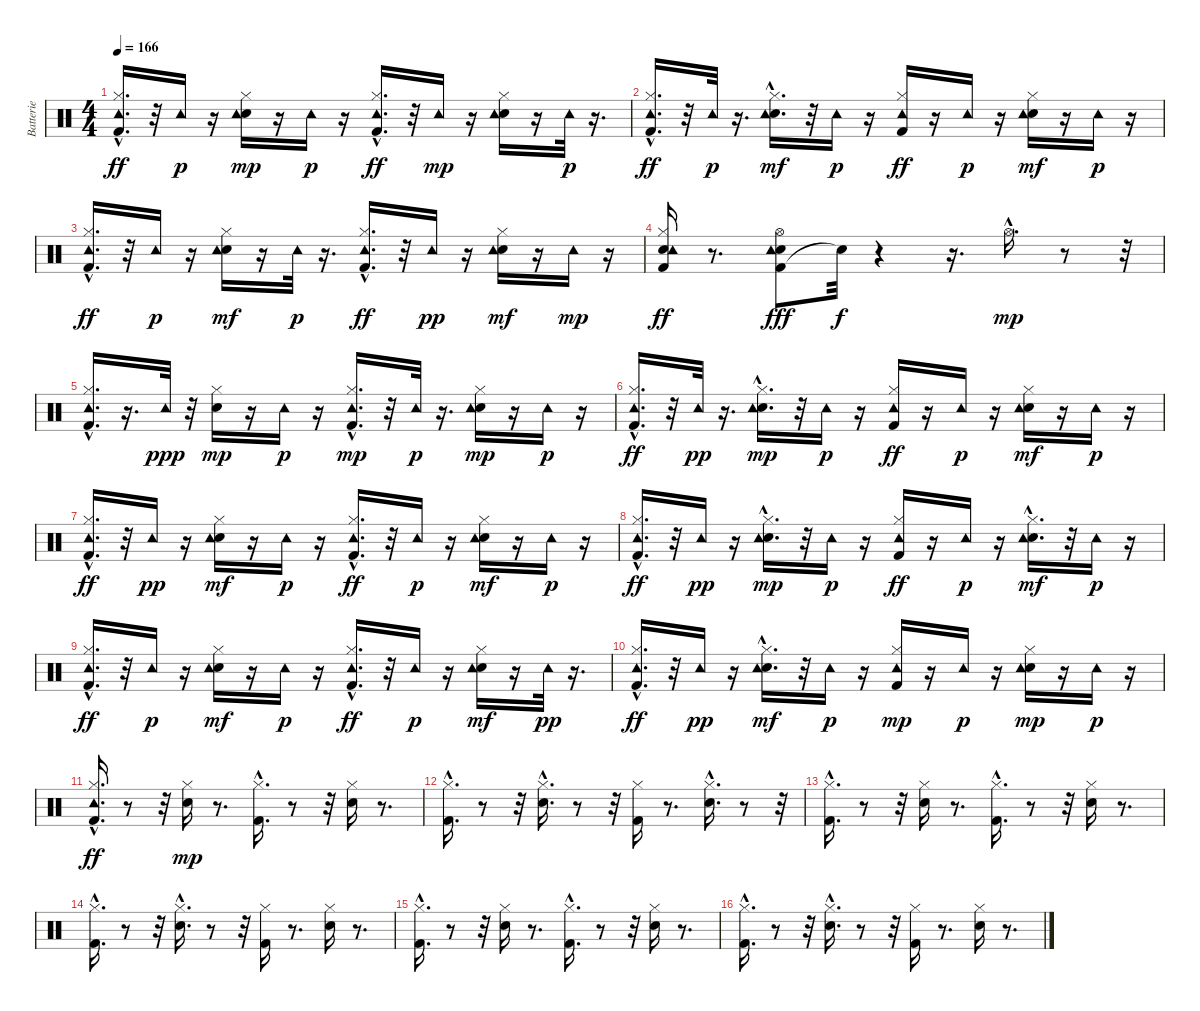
\track ("Batterie" "Batterie") {instrument percussion}
\staff {score}
\articulation defaults
\ts (4 4)
\tempo 166
\clef neutral
\ks c
("Kick (hit) 2"{hac} "Hi-Hat (closed)"{hac} "Tambourine (hit)").16{d dy ff} r.32 "Tambourine (hit)".16{dy p} r.16 ("Electric Snare (hit)" "Hi-Hat (closed)" "Tambourine (hit)").16{dy mp} r.16 "Tambourine (hit)".16{dy p} r.16 ("Kick (hit) 2"{hac} "Hi-Hat (closed)" "Tambourine (hit)").16{d dy ff} r.32 "Tambourine (hit)".16{dy mp} r.16 ("Electric Snare (hit)" "Hi-Hat (closed)" "Tambourine (hit)").16 r.16 "Tambourine (hit)".32{dy p} r.16{d} |
("Kick (hit) 2"{hac} "Hi-Hat (closed)" "Tambourine (hit)").16{d dy ff} r.32 "Tambourine (hit)".32{dy p} r.16{d} ("Electric Snare (hit)" "Hi-Hat (closed)"{hac} "Tambourine (hit)").16{d dy mf} r.32 "Tambourine (hit)".16{dy p} r.16 ("Kick (hit) 2" "Hi-Hat (closed)" "Tambourine (hit)").16{dy ff} r.16 "Tambourine (hit)".16{dy p} r.16 ("Electric Snare (hit)" "Hi-Hat (closed)" "Tambourine (hit)").16{dy mf} r.16 "Tambourine (hit)".16{dy p} r.16 |
("Kick (hit) 2"{hac} "Hi-Hat (closed)"{hac} "Tambourine (hit)").16{d dy ff} r.32 "Tambourine (hit)".16{dy p} r.16 ("Electric Snare (hit)" "Hi-Hat (closed)" "Tambourine (hit)").16{dy mf} r.16 "Tambourine (hit)".32{dy p} r.16{d} ("Kick (hit) 2"{hac} "Hi-Hat (closed)" "Tambourine (hit)").16{d dy ff} r.32 "Tambourine (hit)".16{dy pp} r.16 ("Electric Snare (hit)" "Hi-Hat (closed)" "Tambourine (hit)").16{dy mf} r.16 "Tambourine (hit)".16{dy mp} r.16 |
("Kick (hit) 2" "Electric Snare (hit)" "Hi-Hat (closed)" "Tambourine (hit)").16{dy ff} r.8{d} ("Kick (hit) 2" "Electric Snare (hit)" "Hi-Hat (open)" "Tambourine (hit)").8{dy fff} "Snare (hit)"{t}.32{dy f} r.4 r.16{d} "Hi-Hat (open)"{hac}.16{d dy mp} r.8 r.32 |
("Kick (hit) 2"{hac} "Hi-Hat (closed)"{hac} "Tambourine (hit)").16{d} r.16{d} "Tambourine (hit)".32{dy ppp} r.32 ("Electric Snare (hit)" "Hi-Hat (closed)").16{dy mp} r.16 "Tambourine (hit)".16{dy p} r.16 ("Kick (hit) 2"{hac} "Hi-Hat (closed)" "Tambourine (hit)").16{d dy mp} r.32 "Tambourine (hit)".32{dy p} r.16{d} ("Electric Snare (hit)" "Hi-Hat (closed)" "Tambourine (hit)").16{dy mp} r.16 "Tambourine (hit)".16{dy p} r.16 |
("Kick (hit) 2"{hac} "Hi-Hat (closed)" "Tambourine (hit)").16{d dy ff} r.32 "Tambourine (hit)".32{dy pp} r.16{d} ("Electric Snare (hit)" "Hi-Hat (closed)"{hac} "Tambourine (hit)").16{d dy mp} r.32 "Tambourine (hit)".16{dy p} r.16 ("Kick (hit) 2" "Hi-Hat (closed)" "Tambourine (hit)").16{dy ff} r.16 "Tambourine (hit)".16{dy p} r.16 ("Electric Snare (hit)" "Hi-Hat (closed)" "Tambourine (hit)").16{dy mf} r.16 "Tambourine (hit)".16{dy p} r.16 |
("Kick (hit) 2"{hac} "Hi-Hat (closed)"{hac} "Tambourine (hit)").16{d dy ff} r.32 "Tambourine (hit)".16{dy pp} r.16 ("Electric Snare (hit)" "Hi-Hat (closed)" "Tambourine (hit)").16{dy mf} r.16 "Tambourine (hit)".16{dy p} r.16 ("Kick (hit) 2"{hac} "Hi-Hat (closed)" "Tambourine (hit)").16{d dy ff} r.32 "Tambourine (hit)".16{dy p} r.16 ("Electric Snare (hit)" "Hi-Hat (closed)" "Tambourine (hit)").16{dy mf} r.16 "Tambourine (hit)".16{dy p} r.16 |
("Kick (hit) 2"{hac} "Hi-Hat (closed)" "Tambourine (hit)").16{d dy ff} r.32 "Tambourine (hit)".16{dy pp} r.16 ("Electric Snare (hit)" "Hi-Hat (closed)"{hac} "Tambourine (hit)").16{d dy mp} r.32 "Tambourine (hit)".16{dy p} r.16 ("Kick (hit) 2" "Hi-Hat (closed)" "Tambourine (hit)").16{dy ff} r.16 "Tambourine (hit)".16{dy p} r.16 ("Electric Snare (hit)"{hac} "Hi-Hat (closed)" "Tambourine (hit)").16{d dy mf} r.32 "Tambourine (hit)".16{dy p} r.16 |
("Kick (hit) 2"{hac} "Hi-Hat (closed)"{hac} "Tambourine (hit)").16{d dy ff} r.32 "Tambourine (hit)".16{dy p} r.16 ("Electric Snare (hit)" "Hi-Hat (closed)" "Tambourine (hit)").16{dy mf} r.16 "Tambourine (hit)".16{dy p} r.16 ("Kick (hit) 2"{hac} "Hi-Hat (closed)" "Tambourine (hit)").16{d dy ff} r.32 "Tambourine (hit)".16{dy p} r.16 ("Electric Snare (hit)" "Hi-Hat (closed)" "Tambourine (hit)").16{dy mf} r.16 "Tambourine (hit)".32{dy pp} r.16{d} |
("Kick (hit) 2"{hac} "Hi-Hat (closed)" "Tambourine (hit)").16{d dy ff} r.32 "Tambourine (hit)".16{dy pp} r.16 ("Electric Snare (hit)" "Hi-Hat (closed)"{hac} "Tambourine (hit)").16{d dy mf} r.32 "Tambourine (hit)".16{dy p} r.16 ("Kick (hit) 2" "Hi-Hat (closed)" "Tambourine (hit)").16{dy mp} r.16 "Tambourine (hit)".16{dy p} r.16 ("Electric Snare (hit)" "Hi-Hat (closed)" "Tambourine (hit)").16{dy mp} r.16 "Tambourine (hit)".16{dy p} r.16 |
("Kick (hit) 2"{hac} "Hi-Hat (closed)"{hac} "Tambourine (hit)").16{d dy ff} r.8 r.32 ("Electric Snare (hit)" "Hi-Hat (closed)").16{dy mp} r.8{d} ("Kick (hit) 2"{hac} "Hi-Hat (closed)").16{d} r.8 r.32 ("Electric Snare (hit)" "Hi-Hat (closed)").16 r.8{d} |
("Kick (hit) 2"{hac} "Hi-Hat (closed)").16{d} r.8 r.32 ("Electric Snare (hit)" "Hi-Hat (closed)"{hac}).16{d} r.8 r.32 ("Kick (hit) 2" "Hi-Hat (closed)").16 r.8{d} ("Electric Snare (hit)"{hac} "Hi-Hat (closed)").16{d} r.8 r.32 |
("Kick (hit) 2"{hac} "Hi-Hat (closed)"{hac}).16{d} r.8 r.32 ("Electric Snare (hit)" "Hi-Hat (closed)").16 r.8{d} ("Kick (hit) 2"{hac} "Hi-Hat (closed)").16{d} r.8 r.32 ("Electric Snare (hit)" "Hi-Hat (closed)").16 r.8{d} |
("Kick (hit) 2"{hac} "Hi-Hat (closed)").16{d} r.8 r.32 ("Electric Snare (hit)" "Hi-Hat (closed)"{hac}).16{d} r.8 r.32 ("Kick (hit) 2" "Hi-Hat (closed)").16 r.8{d} ("Electric Snare (hit)" "Hi-Hat (closed)").16 r.8{d} |
("Kick (hit) 2"{hac} "Hi-Hat (closed)"{hac}).16{d} r.8 r.32 ("Electric Snare (hit)" "Hi-Hat (closed)").16 r.8{d} ("Kick (hit) 2"{hac} "Hi-Hat (closed)").16{d} r.8 r.32 ("Electric Snare (hit)" "Hi-Hat (closed)").16 r.8{d} |
("Kick (hit) 2"{hac} "Hi-Hat (closed)").16{d} r.8 r.32 ("Electric Snare (hit)" "Hi-Hat (closed)"{hac}).16{d} r.8 r.32 ("Kick (hit) 2" "Hi-Hat (closed)").16 r.8{d} ("Electric Snare (hit)" "Hi-Hat (closed)").16 r.8{d}
